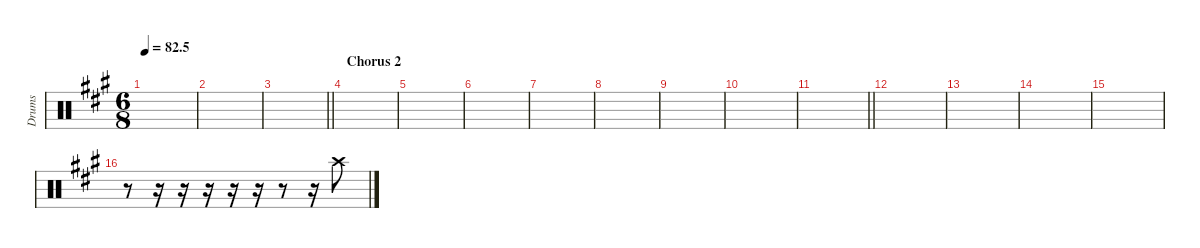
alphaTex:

\defaultSystemsLayout 4
\hideDynamics
\bracketExtendMode nobrackets
\otherSystemsTrackNameOrientation horizontal
\track ("Left crash" "Drums") {instrument percussion}
\staff {score}
\articulation defaults
\ts (6 8)
\tempo
82.5
\accidentals auto
\clef neutral
\ottava regular
\simile none
\scale
0.333333
\ks a
|
\scale
0.333333 |
\scale
0.333333
\barLineRight lightlight
|
\section ("" "Chorus 2")
\scale
0.333333 |
\scale
0.333333 |
\scale
0.333333 |
\scale
0.333333 |
\scale
0.333333 |
\scale
0.333333 |
\scale
0.333333 |
\scale
0.333333
\barLineRight lightlight
|
\scale
0.333333 |
\scale
0.333333 |
\scale
0.333333 |
\scale
0.333333 |
\scale
0.333333 r.8 r.16 r.16 r.16 r.16 r.16 r.8 r.16 "Crash high (hit)"{acc forcenatural}.8
